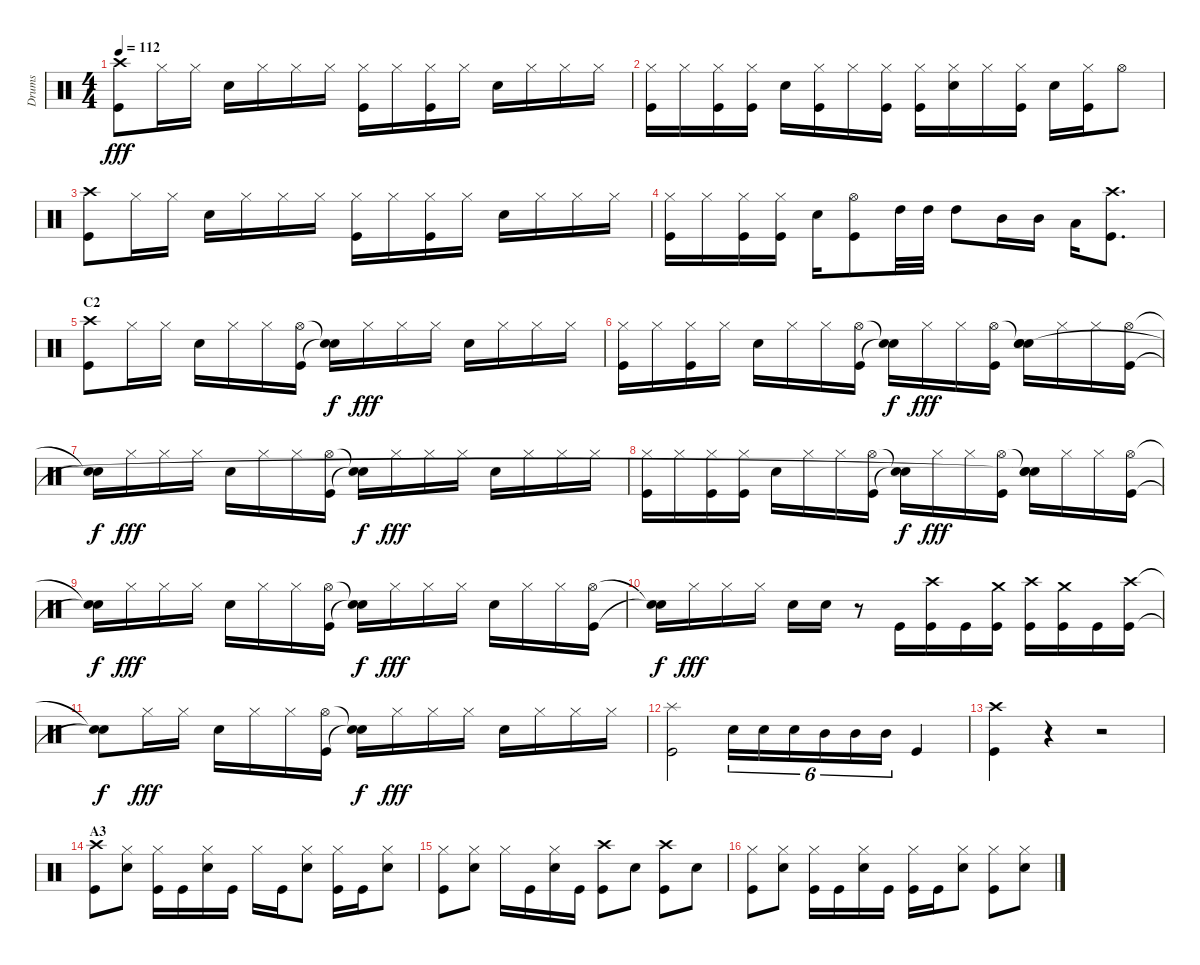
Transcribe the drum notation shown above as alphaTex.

\track ("Drums" "Drums") {instrument percussion}
\staff {score}
\articulation defaults
\ts (4 4)
\tempo 112
\clef neutral
\ks c
("Crash high (hit)" "Kick (hit)").8{dy fff} "Hi-Hat (closed)".16 "Hi-Hat (closed)".16 "Snare (hit) 2".16 "Hi-Hat (closed)".16 "Hi-Hat (closed)".16 "Hi-Hat (closed)".16 ("Hi-Hat (closed)" "Kick (hit)").16 "Hi-Hat (closed)".16 ("Hi-Hat (closed)" "Kick (hit)").16 "Hi-Hat (closed)".16 "Snare (hit) 2".16 "Hi-Hat (closed)".16 "Hi-Hat (closed)".16 "Hi-Hat (closed)".16 |
("Hi-Hat (closed)" "Kick (hit)").16 "Hi-Hat (closed)".16 ("Hi-Hat (closed)" "Kick (hit)").16 ("Hi-Hat (closed)" "Kick (hit)").16 "Snare (hit) 2".16 ("Hi-Hat (closed)" "Kick (hit)").16 "Hi-Hat (closed)".16 ("Hi-Hat (closed)" "Kick (hit)").16 ("Hi-Hat (closed)" "Kick (hit)").16 ("Hi-Hat (closed)" "Snare (hit) 2").16 "Hi-Hat (closed)".16 ("Hi-Hat (closed)" "Kick (hit)").16 "Snare (hit) 2".16 ("Hi-Hat (closed)" "Kick (hit)").16 "Hi-Hat (open)".8 |
("Crash high (hit)" "Kick (hit)").8 "Hi-Hat (closed)".16 "Hi-Hat (closed)".16 "Snare (hit) 2".16 "Hi-Hat (closed)".16 "Hi-Hat (closed)".16 "Hi-Hat (closed)".16 ("Hi-Hat (closed)" "Kick (hit)").16 "Hi-Hat (closed)".16 ("Hi-Hat (closed)" "Kick (hit)").16 "Hi-Hat (closed)".16 "Snare (hit) 2".16 "Hi-Hat (closed)".16 "Hi-Hat (closed)".16 "Hi-Hat (closed)".16 |
("Hi-Hat (closed)" "Kick (hit)").16 "Hi-Hat (closed)".16 ("Hi-Hat (closed)" "Kick (hit)").16 ("Hi-Hat (closed)" "Kick (hit)").16 "Snare (hit) 2".16 ("Hi-Hat (open)" "Kick (hit)").8 "High Tom (hit)".32 "High Tom (hit)".32 "High Tom (hit)".8 "Mid Tom (hit)".16 "Mid Tom (hit)".16 "Low Tom (hit)".16 ("Crash high (hit)" "Kick (hit)").8{d} |
\section ("" "C2")
("Crash high (hit)" "Kick (hit)").8 "Hi-Hat (closed)".16 "Hi-Hat (closed)".16 "Snare (hit) 2".16 "Hi-Hat (closed)".16 "Hi-Hat (closed)".16 ("Hi-Hat (open)" "Kick (hit)").16 ("Snare (hit)"{t} "Snare (hit)"{t}).16{dy f} "Hi-Hat (closed)".16{dy fff} "Hi-Hat (closed)".16 "Hi-Hat (closed)".16 "Snare (hit) 2".16 "Hi-Hat (closed)".16 "Hi-Hat (closed)".16 "Hi-Hat (closed)".16 |
("Hi-Hat (closed)" "Kick (hit)").16 "Hi-Hat (closed)".16 ("Hi-Hat (closed)" "Kick (hit)").16 "Hi-Hat (closed)".16 "Snare (hit) 2".16 "Hi-Hat (closed)".16 "Hi-Hat (closed)".16 ("Hi-Hat (open)" "Kick (hit)").16 ("Snare (hit)"{t} "Snare (hit)"{t}).16{dy f} "Hi-Hat (closed)".16{dy fff} "Hi-Hat (closed)".16 ("Hi-Hat (open)" "Kick (hit)").16 ("Snare (hit)"{t} "Snare (hit) 2" "Snare (hit)").16 "Hi-Hat (closed)".16 "Hi-Hat (closed)".16 ("Hi-Hat (open)" "Kick (hit)").16 |
("Snare (hit)"{t} "Snare (hit)"{t}).16{dy f} "Hi-Hat (closed)".16{dy fff} "Hi-Hat (closed)".16 "Hi-Hat (closed)".16 "Snare (hit) 2".16 "Hi-Hat (closed)".16 "Hi-Hat (closed)".16 ("Hi-Hat (open)" "Kick (hit)").16 ("Snare (hit)"{t} "Snare (hit)"{t}).16{dy f} "Hi-Hat (closed)".16{dy fff} "Hi-Hat (closed)".16 "Hi-Hat (closed)".16 "Snare (hit) 2".16 "Hi-Hat (closed)".16 "Hi-Hat (closed)".16 "Hi-Hat (closed)".16 |
("Hi-Hat (closed)" "Kick (hit)").16 "Hi-Hat (closed)".16 ("Hi-Hat (closed)" "Kick (hit)").16 ("Hi-Hat (closed)" "Kick (hit)").16 "Snare (hit) 2".16 "Hi-Hat (closed)".16 "Hi-Hat (closed)".16 ("Hi-Hat (open)" "Kick (hit)").16 ("Snare (hit)"{t} "Snare (hit)"{t}).16{dy f} "Hi-Hat (closed)".16{dy fff} "Hi-Hat (closed)".16 ("Hi-Hat (open)" "Kick (hit)").16 ("Snare (hit)"{t} "Snare (hit) 2" "Snare (hit)"{t}).16 "Hi-Hat (closed)".16 "Hi-Hat (closed)".16 ("Hi-Hat (open)" "Kick (hit)").16 |
("Snare (hit)"{t} "Snare (hit)"{t}).16{dy f} "Hi-Hat (closed)".16{dy fff} "Hi-Hat (closed)".16 "Hi-Hat (closed)".16 "Snare (hit) 2".16 "Hi-Hat (closed)".16 "Hi-Hat (closed)".16 ("Hi-Hat (open)" "Kick (hit)").16 ("Snare (hit)"{t} "Snare (hit)"{t}).16{dy f} "Hi-Hat (closed)".16{dy fff} "Hi-Hat (closed)".16 "Hi-Hat (closed)".16 "Snare (hit) 2".16 "Hi-Hat (closed)".16 "Hi-Hat (closed)".16 ("Hi-Hat (open)" "Kick (hit)").16 |
("Snare (hit)"{t} "Snare (hit)"{t}).16{dy f} "Hi-Hat (closed)".16{dy fff} "Hi-Hat (closed)".16 "Hi-Hat (closed)".16 "Snare (hit) 2".16 "Snare (hit) 2".16 r.8 "Kick (hit)".16 ("Crash high (hit)" "Kick (hit)").16 "Kick (hit)".16 ("Crash medium (hit)" "Kick (hit)").16 ("Crash high (hit)" "Kick (hit)").16 ("Crash medium (hit)" "Kick (hit)").16 "Kick (hit)".16 ("Crash high (hit)" "Kick (hit)").16 |
("Snare (hit)"{t} "Snare (hit)"{t}).8{dy f} "Hi-Hat (closed)".16{dy fff} "Hi-Hat (closed)".16 "Snare (hit) 2".16 "Hi-Hat (closed)".16 "Hi-Hat (closed)".16 ("Hi-Hat (open)" "Kick (hit)").16 ("Snare (hit)"{t} "Snare (hit)"{t}).16{dy f} "Hi-Hat (closed)".16{dy fff} "Hi-Hat (closed)".16 "Hi-Hat (closed)".16 "Snare (hit) 2".16 "Hi-Hat (closed)".16 "Hi-Hat (closed)".16 "Hi-Hat (closed)".16 |
("Splash (hit)" "Kick (hit)").2 "Snare (hit) 2".16{tu (6 4)} "Snare (hit) 2".16{tu (6 4)} "Snare (hit) 2".16{tu (6 4)} "Mid Tom (hit)".16{tu (6 4)} "Mid Tom (hit)".16{tu (6 4)} "Mid Tom (hit)".16{tu (6 4)} "Kick (hit)".4 |
("Crash high (hit)" "Kick (hit)").4 r.4 r.2 |
\section ("" "A3")
("Crash high (hit)" "Kick (hit)").8 ("Hi-Hat (closed)" "Snare (hit) 2").8 ("Hi-Hat (closed)" "Kick (hit)").16 "Kick (hit)".16 ("Hi-Hat (closed)" "Snare (hit) 2").16 "Kick (hit)".16 "Hi-Hat (closed)".16 "Kick (hit)".16 ("Hi-Hat (closed)" "Snare (hit) 2").8 ("Hi-Hat (closed)" "Kick (hit)").16 "Kick (hit)".16 ("Hi-Hat (closed)" "Snare (hit) 2").8 |
("Hi-Hat (closed)" "Kick (hit)").8 ("Hi-Hat (closed)" "Snare (hit) 2").8 "Hi-Hat (closed)".16 "Kick (hit)".16 ("Hi-Hat (closed)" "Snare (hit) 2").16 "Kick (hit)".16 ("Crash high (hit)" "Kick (hit)").8 "Snare (hit) 2".8 ("Crash high (hit)" "Kick (hit)").8 "Snare (hit) 2".8 |
("Hi-Hat (closed)" "Kick (hit)").8 ("Hi-Hat (closed)" "Snare (hit) 2").8 ("Hi-Hat (closed)" "Kick (hit)").16 "Kick (hit)".16 ("Hi-Hat (closed)" "Snare (hit) 2").16 "Kick (hit)".16 ("Hi-Hat (closed)" "Kick (hit)").16 "Kick (hit)".16 ("Hi-Hat (closed)" "Snare (hit) 2").8 ("Hi-Hat (closed)" "Kick (hit)").8 ("Hi-Hat (closed)" "Snare (hit) 2").8
